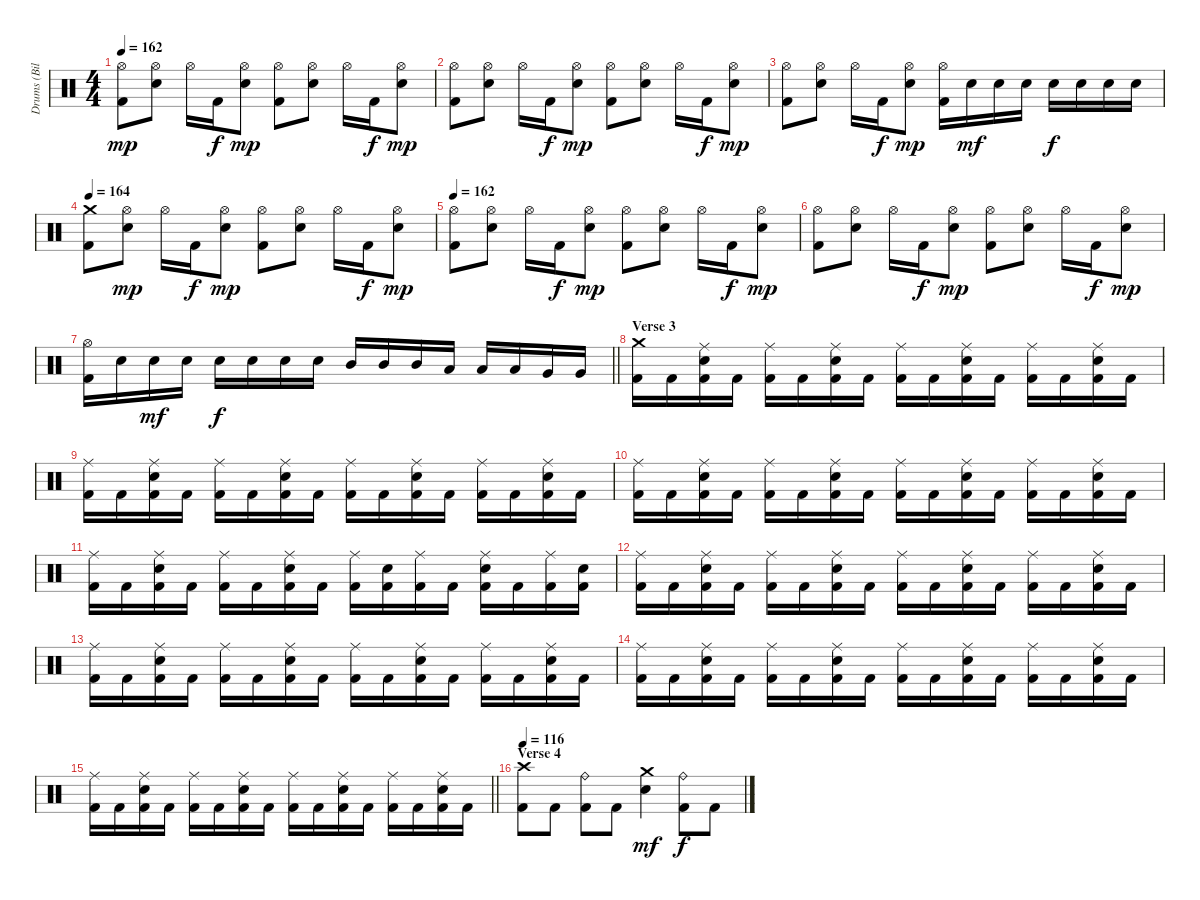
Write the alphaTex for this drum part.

\track ("Drums (Bill Andrews)" "Drums (Bil") {instrument percussion}
\staff
\articulation defaults
\ts (4 4)
\tempo 162
\clef neutral
\ks c
("Hi-Hat (open)" "Kick (hit) 2").8{dy mp} ("Hi-Hat (open)" "Electric Snare (hit)").8 "Hi-Hat (open)".16 "Kick (hit) 2".16{dy f} ("Hi-Hat (open)" "Electric Snare (hit)").8{dy mp} ("Hi-Hat (open)" "Kick (hit) 2").8 ("Hi-Hat (open)" "Electric Snare (hit)").8 "Hi-Hat (open)".16 "Kick (hit) 2".16{dy f} ("Hi-Hat (open)" "Electric Snare (hit)").8{dy mp} |
("Hi-Hat (open)" "Kick (hit) 2").8 ("Hi-Hat (open)" "Electric Snare (hit)").8 "Hi-Hat (open)".16 "Kick (hit) 2".16{dy f} ("Hi-Hat (open)" "Electric Snare (hit)").8{dy mp} ("Hi-Hat (open)" "Kick (hit) 2").8 ("Hi-Hat (open)" "Electric Snare (hit)").8 "Hi-Hat (open)".16 "Kick (hit) 2".16{dy f} ("Hi-Hat (open)" "Electric Snare (hit)").8{dy mp} |
("Hi-Hat (open)" "Kick (hit) 2").8 ("Hi-Hat (open)" "Electric Snare (hit)").8 "Hi-Hat (open)".16 "Kick (hit) 2".16{dy f} ("Hi-Hat (open)" "Electric Snare (hit)").8{dy mp} ("Hi-Hat (open)" "Kick (hit) 2").16 "Electric Snare (hit)".16{dy mf} "Electric Snare (hit)".16 "Electric Snare (hit)".16 "Electric Snare (hit)".16{dy f} "Electric Snare (hit)".16 "Electric Snare (hit)".16 "Electric Snare (hit)".16 |
\tempo 164
("Crash medium (hit)" "Kick (hit) 2").8 ("Hi-Hat (open)" "Electric Snare (hit)").8{dy mp} "Hi-Hat (open)".16 "Kick (hit) 2".16{dy f} ("Hi-Hat (open)" "Electric Snare (hit)").8{dy mp} ("Hi-Hat (open)" "Kick (hit) 2").8 ("Hi-Hat (open)" "Electric Snare (hit)").8 "Hi-Hat (open)".16 "Kick (hit) 2".16{dy f} ("Hi-Hat (open)" "Electric Snare (hit)").8{dy mp} |
\tempo 162
("Hi-Hat (open)" "Kick (hit) 2").8 ("Hi-Hat (open)" "Electric Snare (hit)").8 "Hi-Hat (open)".16 "Kick (hit) 2".16{dy f} ("Hi-Hat (open)" "Electric Snare (hit)").8{dy mp} ("Hi-Hat (open)" "Kick (hit) 2").8 ("Hi-Hat (open)" "Electric Snare (hit)").8 "Hi-Hat (open)".16 "Kick (hit) 2".16{dy f} ("Hi-Hat (open)" "Electric Snare (hit)").8{dy mp} |
("Hi-Hat (open)" "Kick (hit) 2").8 ("Hi-Hat (open)" "Electric Snare (hit)").8 "Hi-Hat (open)".16 "Kick (hit) 2".16{dy f} ("Hi-Hat (open)" "Electric Snare (hit)").8{dy mp} ("Hi-Hat (open)" "Kick (hit) 2").8 ("Hi-Hat (open)" "Electric Snare (hit)").8 "Hi-Hat (open)".16 "Kick (hit) 2".16{dy f} ("Hi-Hat (open)" "Electric Snare (hit)").8{dy mp} |
\barLineRight lightlight
("Hi-Hat (open)" "Kick (hit) 2").16 "Electric Snare (hit)".16 "Electric Snare (hit)".16{dy mf} "Electric Snare (hit)".16 "Electric Snare (hit)".16{dy f} "Electric Snare (hit)".16 "Electric Snare (hit)".16 "Electric Snare (hit)".16 "Mid Tom (hit)".16 "Mid Tom (hit)".16 "Mid Tom (hit)".16 "Low Tom (hit)".16 "Low Tom (hit)".16 "Low Tom (hit)".16 "Very Low Tom (hit)".16 "Very Low Tom (hit)".16 |
\section ("" "Verse 3")
("Crash medium (hit)" "Kick (hit) 2").16 "Kick (hit) 2".16 ("Ride (middle)" "Kick (hit) 2" "Electric Snare (hit)").16 "Kick (hit) 2".16 ("Ride (middle)" "Kick (hit) 2").16 "Kick (hit) 2".16 ("Ride (middle)" "Kick (hit) 2" "Electric Snare (hit)").16 "Kick (hit) 2".16 ("Ride (middle)" "Kick (hit) 2").16 "Kick (hit) 2".16 ("Ride (middle)" "Kick (hit) 2" "Electric Snare (hit)").16 "Kick (hit) 2".16 ("Ride (middle)" "Kick (hit) 2").16 "Kick (hit) 2".16 ("Ride (middle)" "Kick (hit) 2" "Electric Snare (hit)").16 "Kick (hit) 2".16 |
("Ride (middle)" "Kick (hit) 2").16 "Kick (hit) 2".16 ("Ride (middle)" "Kick (hit) 2" "Electric Snare (hit)").16 "Kick (hit) 2".16 ("Ride (middle)" "Kick (hit) 2").16 "Kick (hit) 2".16 ("Ride (middle)" "Kick (hit) 2" "Electric Snare (hit)").16 "Kick (hit) 2".16 ("Ride (middle)" "Kick (hit) 2").16 "Kick (hit) 2".16 ("Ride (middle)" "Kick (hit) 2" "Electric Snare (hit)").16 "Kick (hit) 2".16 ("Ride (middle)" "Kick (hit) 2").16 "Kick (hit) 2".16 ("Ride (middle)" "Kick (hit) 2" "Electric Snare (hit)").16 "Kick (hit) 2".16 |
("Ride (middle)" "Kick (hit) 2").16 "Kick (hit) 2".16 ("Ride (middle)" "Kick (hit) 2" "Electric Snare (hit)").16 "Kick (hit) 2".16 ("Ride (middle)" "Kick (hit) 2").16 "Kick (hit) 2".16 ("Ride (middle)" "Kick (hit) 2" "Electric Snare (hit)").16 "Kick (hit) 2".16 ("Ride (middle)" "Kick (hit) 2").16 "Kick (hit) 2".16 ("Ride (middle)" "Kick (hit) 2" "Electric Snare (hit)").16 "Kick (hit) 2".16 ("Ride (middle)" "Kick (hit) 2").16 "Kick (hit) 2".16 ("Ride (middle)" "Kick (hit) 2" "Electric Snare (hit)").16 "Kick (hit) 2".16 |
("Ride (middle)" "Kick (hit) 2").16 "Kick (hit) 2".16 ("Ride (middle)" "Kick (hit) 2" "Electric Snare (hit)").16 "Kick (hit) 2".16 ("Ride (middle)" "Kick (hit) 2").16 "Kick (hit) 2".16 ("Ride (middle)" "Kick (hit) 2" "Electric Snare (hit)").16 "Kick (hit) 2".16 ("Ride (middle)" "Kick (hit) 2").16 ("Kick (hit) 2" "Electric Snare (hit)").16 ("Ride (middle)" "Kick (hit) 2").16 "Kick (hit) 2".16 ("Ride (middle)" "Kick (hit) 2" "Electric Snare (hit)").16 "Kick (hit) 2".16 ("Ride (middle)" "Kick (hit) 2").16 ("Kick (hit) 2" "Electric Snare (hit)").16 |
("Ride (middle)" "Kick (hit) 2").16 "Kick (hit) 2".16 ("Ride (middle)" "Kick (hit) 2" "Electric Snare (hit)").16 "Kick (hit) 2".16 ("Ride (middle)" "Kick (hit) 2").16 "Kick (hit) 2".16 ("Ride (middle)" "Kick (hit) 2" "Electric Snare (hit)").16 "Kick (hit) 2".16 ("Ride (middle)" "Kick (hit) 2").16 "Kick (hit) 2".16 ("Ride (middle)" "Kick (hit) 2" "Electric Snare (hit)").16 "Kick (hit) 2".16 ("Ride (middle)" "Kick (hit) 2").16 "Kick (hit) 2".16 ("Ride (middle)" "Kick (hit) 2" "Electric Snare (hit)").16 "Kick (hit) 2".16 |
("Ride (middle)" "Kick (hit) 2").16 "Kick (hit) 2".16 ("Ride (middle)" "Kick (hit) 2" "Electric Snare (hit)").16 "Kick (hit) 2".16 ("Ride (middle)" "Kick (hit) 2").16 "Kick (hit) 2".16 ("Ride (middle)" "Kick (hit) 2" "Electric Snare (hit)").16 "Kick (hit) 2".16 ("Ride (middle)" "Kick (hit) 2").16 "Kick (hit) 2".16 ("Ride (middle)" "Kick (hit) 2" "Electric Snare (hit)").16 "Kick (hit) 2".16 ("Ride (middle)" "Kick (hit) 2").16 "Kick (hit) 2".16 ("Ride (middle)" "Kick (hit) 2" "Electric Snare (hit)").16 "Kick (hit) 2".16 |
("Ride (middle)" "Kick (hit) 2").16 "Kick (hit) 2".16 ("Ride (middle)" "Kick (hit) 2" "Electric Snare (hit)").16 "Kick (hit) 2".16 ("Ride (middle)" "Kick (hit) 2").16 "Kick (hit) 2".16 ("Ride (middle)" "Kick (hit) 2" "Electric Snare (hit)").16 "Kick (hit) 2".16 ("Ride (middle)" "Kick (hit) 2").16 "Kick (hit) 2".16 ("Ride (middle)" "Kick (hit) 2" "Electric Snare (hit)").16 "Kick (hit) 2".16 ("Ride (middle)" "Kick (hit) 2").16 "Kick (hit) 2".16 ("Ride (middle)" "Kick (hit) 2" "Electric Snare (hit)").16 "Kick (hit) 2".16 |
\barLineRight lightlight
("Ride (middle)" "Kick (hit) 2").16 "Kick (hit) 2".16 ("Ride (middle)" "Kick (hit) 2" "Electric Snare (hit)").16 "Kick (hit) 2".16 ("Ride (middle)" "Kick (hit) 2").16 "Kick (hit) 2".16 ("Ride (middle)" "Kick (hit) 2" "Electric Snare (hit)").16 "Kick (hit) 2".16 ("Ride (middle)" "Kick (hit) 2").16 "Kick (hit) 2".16 ("Ride (middle)" "Kick (hit) 2" "Electric Snare (hit)").16 "Kick (hit) 2".16 ("Ride (middle)" "Kick (hit) 2").16 "Kick (hit) 2".16 ("Ride (middle)" "Kick (hit) 2" "Electric Snare (hit)").16 "Kick (hit) 2".16 |
\section ("" "Verse 4")
\tempo 116
("Crash high (hit)" "Kick (hit) 2").8 "Kick (hit) 2".8 ("Ride (bell)" "Kick (hit) 2").8 "Kick (hit) 2".8 ("Crash medium (hit)" "Electric Snare (hit)").4{dy mf} ("Ride (bell)" "Kick (hit) 2").8{dy f} "Kick (hit) 2".8
